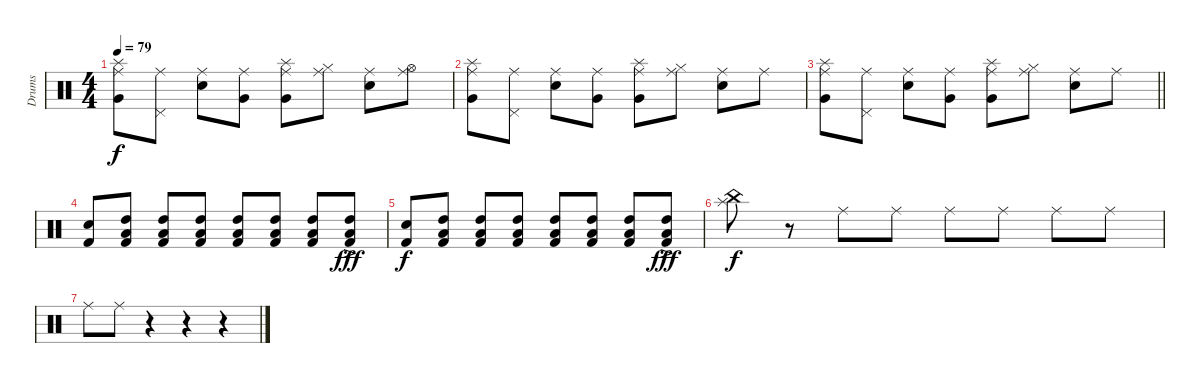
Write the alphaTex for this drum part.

\track ("Drums" "Drums") {instrument percussion}
\staff {score}
\articulation defaults
\ts (4 4)
\tempo 79
\clef neutral
\ks c
("Splash (hit)" "Very Low Tom (hit)" "Ride (middle)").8{dy f} ("Pedal Hi-Hat (hit)" "Ride (middle)").8 ("Snare (hit) 2" "Ride (middle)").8 ("Very Low Tom (hit)" "Ride (middle)").8 ("Splash (hit)" "Very Low Tom (hit)" "Ride (middle)").8 ("Hi-Hat (closed)" "Ride (middle)").8 ("Snare (hit) 2" "Ride (middle)").8 ("Hi-Hat (open)" "Ride (middle)").8 |
("Splash (hit)" "Very Low Tom (hit)" "Ride (middle)").8 ("Pedal Hi-Hat (hit)" "Ride (middle)").8 ("Snare (hit) 2" "Ride (middle)").8 ("Very Low Tom (hit)" "Ride (middle)").8 ("Splash (hit)" "Very Low Tom (hit)" "Ride (middle)").8 ("Hi-Hat (closed)" "Ride (middle)").8 ("Snare (hit) 2" "Ride (middle)").8 "Ride (middle)".8 |
\barLineRight lightlight
("Splash (hit)" "Very Low Tom (hit)" "Ride (middle)").8 ("Pedal Hi-Hat (hit)" "Ride (middle)").8 ("Snare (hit) 2" "Ride (middle)").8 ("Very Low Tom (hit)" "Ride (middle)").8 ("Splash (hit)" "Very Low Tom (hit)" "Ride (middle)").8 ("Hi-Hat (closed)" "Ride (middle)").8 ("Snare (hit) 2" "Ride (middle)").8 "Ride (middle)".8 |
("Kick (hit) 2" "Snare (hit) 2").8 ("High Tom (hit)" "Kick (hit) 2" "Low Tom (hit)").8 ("High Tom (hit)" "Kick (hit) 2" "Low Tom (hit)").8 ("High Tom (hit)" "Kick (hit) 2" "Low Tom (hit)").8 ("High Tom (hit)" "Kick (hit) 2" "Low Tom (hit)").8 ("High Tom (hit)" "Kick (hit) 2" "Low Tom (hit)").8 ("High Tom (hit)" "Kick (hit) 2" "Low Tom (hit)").8 ("High Tom (hit)"{ac} "Kick (hit) 2"{ac} "Low Tom (hit)"{ac}).8{dy fff} |
("Kick (hit) 2" "Snare (hit) 2").8{dy f} ("High Tom (hit)" "Kick (hit) 2" "Low Tom (hit)").8 ("High Tom (hit)" "Kick (hit) 2" "Low Tom (hit)").8 ("High Tom (hit)" "Kick (hit) 2" "Low Tom (hit)").8 ("High Tom (hit)" "Kick (hit) 2" "Low Tom (hit)").8 ("High Tom (hit)" "Kick (hit) 2" "Low Tom (hit)").8 ("High Tom (hit)" "Kick (hit) 2" "Low Tom (hit)").8 ("High Tom (hit)"{ac} "Kick (hit) 2"{ac} "Low Tom (hit)"{ac}).8{dy fff} |
("China (hit)" "Splash (hit)").8{dy f} r.8 "Ride (middle)".8{volume 3} "Ride (middle)".8 "Ride (middle)".8 "Ride (middle)".8 "Ride (middle)".8 "Ride (middle)".8 |
"Ride (middle)".8 "Ride (middle)".8 r.4 r.4 r.4
